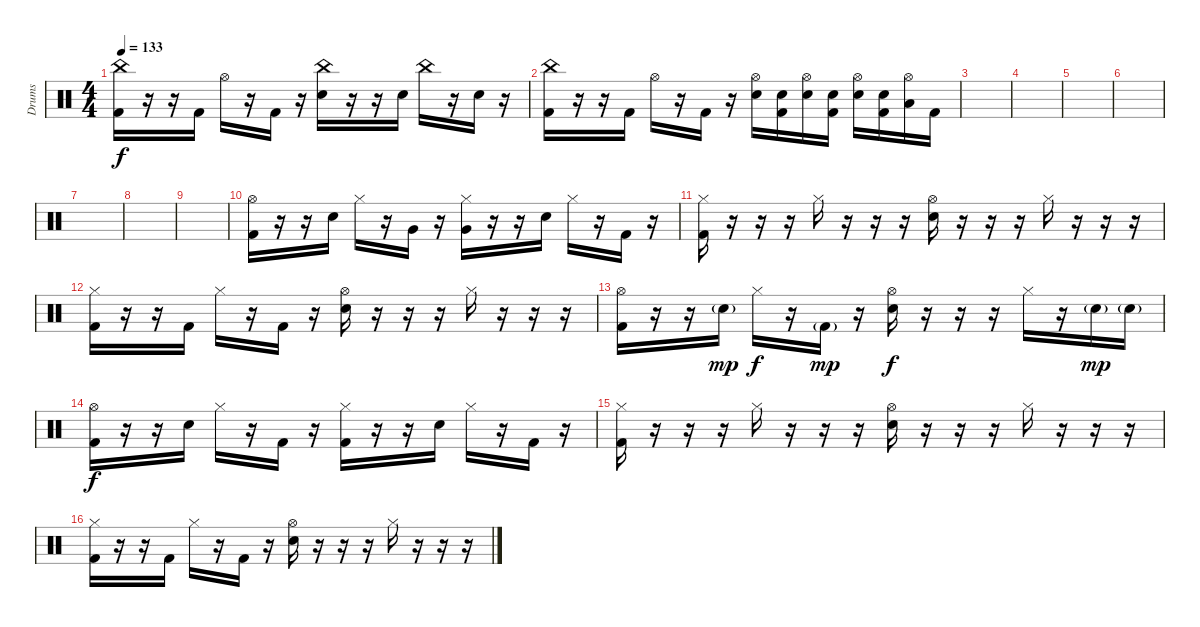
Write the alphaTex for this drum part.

\track ("Drums" "Drums") {instrument percussion}
\staff {score}
\articulation defaults
\ts (4 4)
\tempo 133
\clef neutral
\ks c
("China (hit)" "Kick (hit) 2").16{dy f} r.16 r.16 "Kick (hit) 2".16 "Hi-Hat (open)".16 r.16 "Kick (hit) 2".16 r.16 ("China (hit)" "Snare (hit) 2").16 r.16 r.16 "Snare (hit) 2".16 "China (hit)".16 r.16 "Snare (hit) 2".16 r.16 |
("China (hit)" "Kick (hit) 2").16 r.16 r.16 "Kick (hit) 2".16 "Hi-Hat (open)".16 r.16 "Kick (hit) 2".16 r.16 ("Hi-Hat (open)" "Snare (hit) 2").16 ("Snare (hit) 2" "Kick (hit) 2").16 ("Hi-Hat (open)" "Snare (hit) 2").16 ("Snare (hit) 2" "Kick (hit) 2").16 ("Hi-Hat (open)" "Snare (hit) 2").16 ("Snare (hit) 2" "Kick (hit) 2").16 ("Hi-Hat (open)" "Low Floor Tom (hit)").16 "Kick (hit) 2".16 |
|
|
|
|
|
|
|
("Hi-Hat (open)" "Kick (hit) 2").16 r.16 r.16 "Snare (hit) 2".16 "Hi-Hat (closed)".16 r.16 "Very Low Tom (hit)".16 r.16 ("Hi-Hat (closed)" "Very Low Tom (hit)").16 r.16 r.16 "Snare (hit) 2".16 "Hi-Hat (closed)".16 r.16 "Kick (hit) 2".16 r.16 |
("Hi-Hat (closed)" "Kick (hit) 2").16 r.16 r.16 r.16 "Hi-Hat (closed)".16 r.16 r.16 r.16 ("Hi-Hat (open)" "Snare (hit) 2").16 r.16 r.16 r.16 "Hi-Hat (closed)".16 r.16 r.16 r.16 |
("Hi-Hat (closed)" "Kick (hit) 2").16 r.16 r.16 "Kick (hit) 2".16 "Hi-Hat (closed)".16 r.16 "Kick (hit) 2".16 r.16 ("Hi-Hat (open)" "Snare (hit) 2").16 r.16 r.16 r.16 "Hi-Hat (closed)".16 r.16 r.16 r.16 |
("Hi-Hat (open)" "Kick (hit) 2").16 r.16 r.16 "Snare (hit) 2"{g}.16{dy mp} "Hi-Hat (closed)".16{dy f} r.16 "Kick (hit) 2"{g}.16{dy mp} r.16 ("Hi-Hat (open)" "Snare (hit) 2").16{dy f} r.16 r.16 r.16 "Hi-Hat (closed)".16 r.16 "Snare (hit) 2"{g}.16{dy mp} "Snare (hit) 2"{g}.16 |
("Hi-Hat (open)" "Kick (hit) 2").16{dy f} r.16 r.16 "Snare (hit) 2".16 "Hi-Hat (closed)".16 r.16 "Kick (hit) 2".16 r.16 ("Hi-Hat (closed)" "Kick (hit) 2").16 r.16 r.16 "Snare (hit) 2".16 "Hi-Hat (closed)".16 r.16 "Kick (hit) 2".16 r.16 |
("Hi-Hat (closed)" "Kick (hit) 2").16 r.16 r.16 r.16 "Hi-Hat (closed)".16 r.16 r.16 r.16 ("Hi-Hat (open)" "Snare (hit) 2").16 r.16 r.16 r.16 "Hi-Hat (closed)".16 r.16 r.16 r.16 |
("Hi-Hat (closed)" "Kick (hit) 2").16 r.16 r.16 "Kick (hit) 2".16 "Hi-Hat (closed)".16 r.16 "Kick (hit) 2".16 r.16 ("Hi-Hat (open)" "Snare (hit) 2").16 r.16 r.16 r.16 "Hi-Hat (closed)".16 r.16 r.16 r.16
